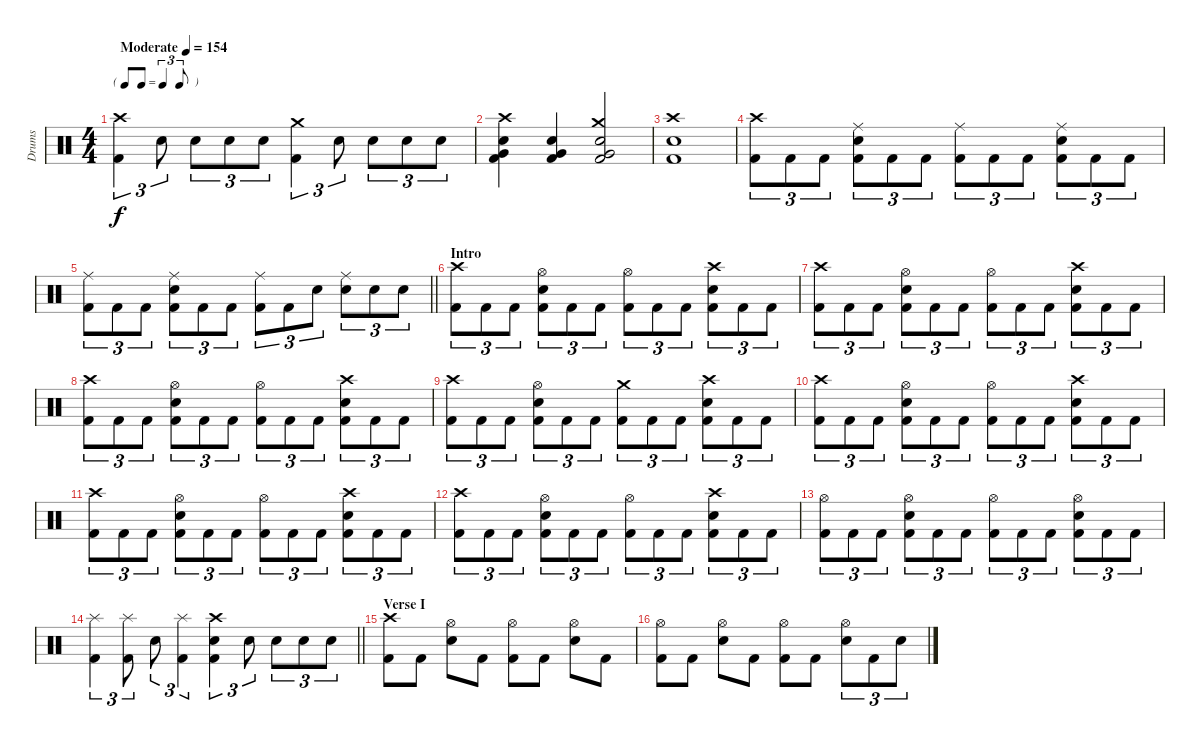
\track ("Drums" "Drums") {instrument percussion}
\staff {score}
\articulation defaults
\ts (4 4)
\tf triplet8th
\tempo (154 "Moderate")
\clef neutral
\ks c
("Crash high (hit)" "Kick (hit) 2").4{tu (3 2) dy f} "Snare (hit) 2".8{tu (3 2)} "Snare (hit) 2".8{tu (3 2)} "Snare (hit) 2".8{tu (3 2)} "Snare (hit) 2".8{tu (3 2)} ("Crash medium (hit)" "Kick (hit) 2").4{tu (3 2)} "Snare (hit) 2".8{tu (3 2)} "Snare (hit) 2".8{tu (3 2)} "Snare (hit) 2".8{tu (3 2)} "Snare (hit) 2".8{tu (3 2)} |
("Crash high (hit)" "Snare (hit) 2" "Very Low Tom (hit)" "Kick (hit) 2").4 ("Snare (hit) 2" "Very Low Tom (hit)" "Kick (hit) 2").4 ("Crash medium (hit)" "Snare (hit) 2" "Very Low Tom (hit)" "Kick (hit) 2").2 |
("Crash high (hit)" "Snare (hit) 2" "Kick (hit) 2").1 |
("Crash high (hit)" "Kick (hit) 2").8{tu (3 2)} "Kick (hit) 2".8{tu (3 2)} "Kick (hit) 2".8{tu (3 2)} ("Ride (middle)" "Snare (hit) 2" "Kick (hit) 2").8{tu (3 2)} "Kick (hit) 2".8{tu (3 2)} "Kick (hit) 2".8{tu (3 2)} ("Ride (middle)" "Kick (hit) 2").8{tu (3 2)} "Kick (hit) 2".8{tu (3 2)} "Kick (hit) 2".8{tu (3 2)} ("Ride (middle)" "Snare (hit) 2" "Kick (hit) 2").8{tu (3 2)} "Kick (hit) 2".8{tu (3 2)} "Kick (hit) 2".8{tu (3 2)} |
\barLineRight lightlight
("Ride (middle)" "Kick (hit) 2").8{tu (3 2)} "Kick (hit) 2".8{tu (3 2)} "Kick (hit) 2".8{tu (3 2)} ("Ride (middle)" "Snare (hit) 2" "Kick (hit) 2").8{tu (3 2)} "Kick (hit) 2".8{tu (3 2)} "Kick (hit) 2".8{tu (3 2)} ("Ride (middle)" "Kick (hit) 2").8{tu (3 2)} "Kick (hit) 2".8{tu (3 2)} "Snare (hit) 2".8{tu (3 2)} ("Ride (middle)" "Snare (hit) 2").8{tu (3 2)} "Snare (hit) 2".8{tu (3 2)} "Snare (hit) 2".8{tu (3 2)} |
\section ("" "Intro")
("Crash high (hit)" "Kick (hit) 2").8{tu (3 2)} "Kick (hit) 2".8{tu (3 2)} "Kick (hit) 2".8{tu (3 2)} ("Hi-Hat (open)" "Snare (hit) 2" "Kick (hit) 2").8{tu (3 2)} "Kick (hit) 2".8{tu (3 2)} "Kick (hit) 2".8{tu (3 2)} ("Hi-Hat (open)" "Kick (hit) 2").8{tu (3 2)} "Kick (hit) 2".8{tu (3 2)} "Kick (hit) 2".8{tu (3 2)} ("Crash high (hit)" "Snare (hit) 2" "Kick (hit) 2").8{tu (3 2)} "Kick (hit) 2".8{tu (3 2)} "Kick (hit) 2".8{tu (3 2)} |
("Crash high (hit)" "Kick (hit) 2").8{tu (3 2)} "Kick (hit) 2".8{tu (3 2)} "Kick (hit) 2".8{tu (3 2)} ("Hi-Hat (open)" "Snare (hit) 2" "Kick (hit) 2").8{tu (3 2)} "Kick (hit) 2".8{tu (3 2)} "Kick (hit) 2".8{tu (3 2)} ("Hi-Hat (open)" "Kick (hit) 2").8{tu (3 2)} "Kick (hit) 2".8{tu (3 2)} "Kick (hit) 2".8{tu (3 2)} ("Crash high (hit)" "Snare (hit) 2" "Kick (hit) 2").8{tu (3 2)} "Kick (hit) 2".8{tu (3 2)} "Kick (hit) 2".8{tu (3 2)} |
("Crash high (hit)" "Kick (hit) 2").8{tu (3 2)} "Kick (hit) 2".8{tu (3 2)} "Kick (hit) 2".8{tu (3 2)} ("Hi-Hat (open)" "Snare (hit) 2" "Kick (hit) 2").8{tu (3 2)} "Kick (hit) 2".8{tu (3 2)} "Kick (hit) 2".8{tu (3 2)} ("Hi-Hat (open)" "Kick (hit) 2").8{tu (3 2)} "Kick (hit) 2".8{tu (3 2)} "Kick (hit) 2".8{tu (3 2)} ("Crash high (hit)" "Snare (hit) 2" "Kick (hit) 2").8{tu (3 2)} "Kick (hit) 2".8{tu (3 2)} "Kick (hit) 2".8{tu (3 2)} |
("Crash high (hit)" "Kick (hit) 2").8{tu (3 2)} "Kick (hit) 2".8{tu (3 2)} "Kick (hit) 2".8{tu (3 2)} ("Hi-Hat (open)" "Snare (hit) 2" "Kick (hit) 2").8{tu (3 2)} "Kick (hit) 2".8{tu (3 2)} "Kick (hit) 2".8{tu (3 2)} ("Crash medium (hit)" "Kick (hit) 2").8{tu (3 2)} "Kick (hit) 2".8{tu (3 2)} "Kick (hit) 2".8{tu (3 2)} ("Crash high (hit)" "Snare (hit) 2" "Kick (hit) 2").8{tu (3 2)} "Kick (hit) 2".8{tu (3 2)} "Kick (hit) 2".8{tu (3 2)} |
("Crash high (hit)" "Kick (hit) 2").8{tu (3 2)} "Kick (hit) 2".8{tu (3 2)} "Kick (hit) 2".8{tu (3 2)} ("Hi-Hat (open)" "Snare (hit) 2" "Kick (hit) 2").8{tu (3 2)} "Kick (hit) 2".8{tu (3 2)} "Kick (hit) 2".8{tu (3 2)} ("Hi-Hat (open)" "Kick (hit) 2").8{tu (3 2)} "Kick (hit) 2".8{tu (3 2)} "Kick (hit) 2".8{tu (3 2)} ("Crash high (hit)" "Snare (hit) 2" "Kick (hit) 2").8{tu (3 2)} "Kick (hit) 2".8{tu (3 2)} "Kick (hit) 2".8{tu (3 2)} |
("Crash high (hit)" "Kick (hit) 2").8{tu (3 2)} "Kick (hit) 2".8{tu (3 2)} "Kick (hit) 2".8{tu (3 2)} ("Hi-Hat (open)" "Snare (hit) 2" "Kick (hit) 2").8{tu (3 2)} "Kick (hit) 2".8{tu (3 2)} "Kick (hit) 2".8{tu (3 2)} ("Hi-Hat (open)" "Kick (hit) 2").8{tu (3 2)} "Kick (hit) 2".8{tu (3 2)} "Kick (hit) 2".8{tu (3 2)} ("Crash high (hit)" "Snare (hit) 2" "Kick (hit) 2").8{tu (3 2)} "Kick (hit) 2".8{tu (3 2)} "Kick (hit) 2".8{tu (3 2)} |
("Crash high (hit)" "Kick (hit) 2").8{tu (3 2)} "Kick (hit) 2".8{tu (3 2)} "Kick (hit) 2".8{tu (3 2)} ("Hi-Hat (open)" "Snare (hit) 2" "Kick (hit) 2").8{tu (3 2)} "Kick (hit) 2".8{tu (3 2)} "Kick (hit) 2".8{tu (3 2)} ("Hi-Hat (open)" "Kick (hit) 2").8{tu (3 2)} "Kick (hit) 2".8{tu (3 2)} "Kick (hit) 2".8{tu (3 2)} ("Crash high (hit)" "Snare (hit) 2" "Kick (hit) 2").8{tu (3 2)} "Kick (hit) 2".8{tu (3 2)} "Kick (hit) 2".8{tu (3 2)} |
("Hi-Hat (open)" "Kick (hit) 2").8{tu (3 2)} "Kick (hit) 2".8{tu (3 2)} "Kick (hit) 2".8{tu (3 2)} ("Hi-Hat (open)" "Snare (hit) 2" "Kick (hit) 2").8{tu (3 2)} "Kick (hit) 2".8{tu (3 2)} "Kick (hit) 2".8{tu (3 2)} ("Hi-Hat (open)" "Kick (hit) 2").8{tu (3 2)} "Kick (hit) 2".8{tu (3 2)} "Kick (hit) 2".8{tu (3 2)} ("Hi-Hat (open)" "Snare (hit) 2" "Kick (hit) 2").8{tu (3 2)} "Kick (hit) 2".8{tu (3 2)} "Kick (hit) 2".8{tu (3 2)} |
\barLineRight lightlight
("Splash (hit)" "Kick (hit) 2").4{tu (3 2)} ("Splash (hit)" "Kick (hit) 2").8{tu (3 2)} "Snare (hit) 2".8{tu (3 2)} ("Splash (hit)" "Kick (hit) 2").4{tu (3 2)} ("Crash high (hit)" "Snare (hit) 2" "Kick (hit) 2").4{tu (3 2)} "Snare (hit) 2".8{tu (3 2)} "Snare (hit) 2".8{tu (3 2)} "Snare (hit) 2".8{tu (3 2)} "Snare (hit) 2".8{tu (3 2)} |
\section ("" "Verse I")
("Crash high (hit)" "Kick (hit) 2").8 "Kick (hit) 2".8 ("Hi-Hat (open)" "Snare (hit) 2").8 "Kick (hit) 2".8 ("Hi-Hat (open)" "Kick (hit) 2").8 "Kick (hit) 2".8 ("Hi-Hat (open)" "Snare (hit) 2").8 "Kick (hit) 2".8 |
("Hi-Hat (open)" "Kick (hit) 2").8 "Kick (hit) 2".8 ("Hi-Hat (open)" "Snare (hit) 2").8 "Kick (hit) 2".8 ("Hi-Hat (open)" "Kick (hit) 2").8 "Kick (hit) 2".8 ("Hi-Hat (open)" "Snare (hit) 2").8{tu (3 2)} "Kick (hit) 2".8{tu (3 2)} "Snare (hit) 2".8{tu (3 2)}
